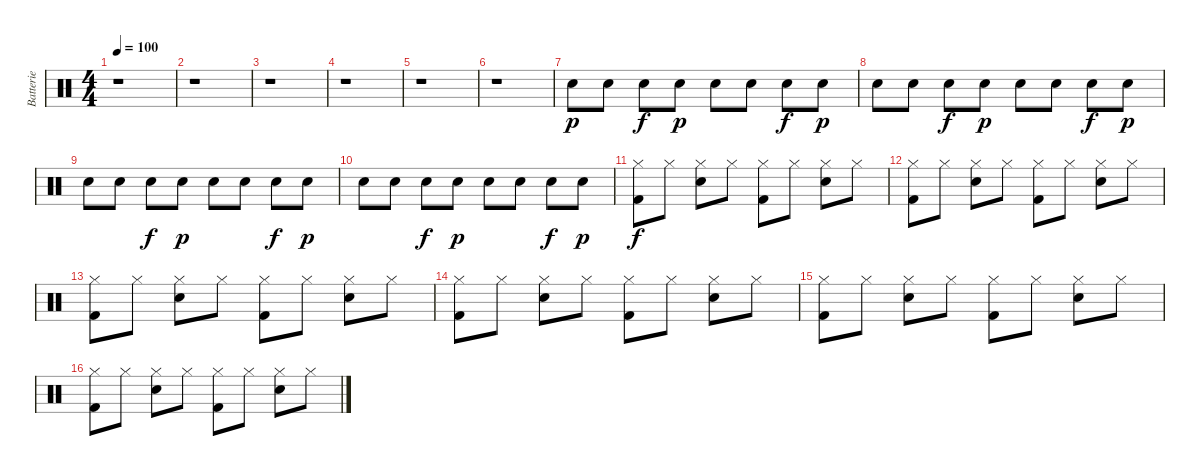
\track ("Batterie" "Batterie") {instrument percussion}
\staff {score}
\articulation defaults
\ts (4 4)
\tempo 100
\clef neutral
\ks c
r.1{dy p} |
r.1 |
r.1 |
r.1 |
r.1 |
r.1 |
"Snare (hit) 2".8 "Snare (hit) 2".8 "Snare (hit) 2".8{dy f} "Snare (hit) 2".8{dy p} "Snare (hit) 2".8 "Snare (hit) 2".8 "Snare (hit) 2".8{dy f} "Snare (hit) 2".8{dy p} |
"Snare (hit) 2".8 "Snare (hit) 2".8 "Snare (hit) 2".8{dy f} "Snare (hit) 2".8{dy p} "Snare (hit) 2".8 "Snare (hit) 2".8 "Snare (hit) 2".8{dy f} "Snare (hit) 2".8{dy p} |
"Snare (hit) 2".8 "Snare (hit) 2".8 "Snare (hit) 2".8{dy f} "Snare (hit) 2".8{dy p} "Snare (hit) 2".8 "Snare (hit) 2".8 "Snare (hit) 2".8{dy f} "Snare (hit) 2".8{dy p} |
"Snare (hit) 2".8 "Snare (hit) 2".8 "Snare (hit) 2".8{dy f} "Snare (hit) 2".8{dy p} "Snare (hit) 2".8 "Snare (hit) 2".8 "Snare (hit) 2".8{dy f} "Snare (hit) 2".8{dy p} |
("Hi-Hat (closed)" "Kick (hit) 2").8{dy f} "Hi-Hat (closed)".8 ("Hi-Hat (closed)" "Snare (hit) 2").8 "Hi-Hat (closed)".8 ("Hi-Hat (closed)" "Kick (hit) 2").8 "Hi-Hat (closed)".8 ("Hi-Hat (closed)" "Snare (hit) 2").8 "Hi-Hat (closed)".8 |
("Hi-Hat (closed)" "Kick (hit) 2").8 "Hi-Hat (closed)".8 ("Hi-Hat (closed)" "Snare (hit) 2").8 "Hi-Hat (closed)".8 ("Hi-Hat (closed)" "Kick (hit) 2").8 "Hi-Hat (closed)".8 ("Hi-Hat (closed)" "Snare (hit) 2").8 "Hi-Hat (closed)".8 |
("Hi-Hat (closed)" "Kick (hit) 2").8 "Hi-Hat (closed)".8 ("Hi-Hat (closed)" "Snare (hit) 2").8 "Hi-Hat (closed)".8 ("Hi-Hat (closed)" "Kick (hit) 2").8 "Hi-Hat (closed)".8 ("Hi-Hat (closed)" "Snare (hit) 2").8 "Hi-Hat (closed)".8 |
("Hi-Hat (closed)" "Kick (hit) 2").8 "Hi-Hat (closed)".8 ("Hi-Hat (closed)" "Snare (hit) 2").8 "Hi-Hat (closed)".8 ("Hi-Hat (closed)" "Kick (hit) 2").8 "Hi-Hat (closed)".8 ("Hi-Hat (closed)" "Snare (hit) 2").8 "Hi-Hat (closed)".8 |
("Hi-Hat (closed)" "Kick (hit) 2").8 "Hi-Hat (closed)".8 ("Hi-Hat (closed)" "Snare (hit) 2").8 "Hi-Hat (closed)".8 ("Hi-Hat (closed)" "Kick (hit) 2").8 "Hi-Hat (closed)".8 ("Hi-Hat (closed)" "Snare (hit) 2").8 "Hi-Hat (closed)".8 |
("Hi-Hat (closed)" "Kick (hit) 2").8 "Hi-Hat (closed)".8 ("Hi-Hat (closed)" "Snare (hit) 2").8 "Hi-Hat (closed)".8 ("Hi-Hat (closed)" "Kick (hit) 2").8 "Hi-Hat (closed)".8 ("Hi-Hat (closed)" "Snare (hit) 2").8 "Hi-Hat (closed)".8
